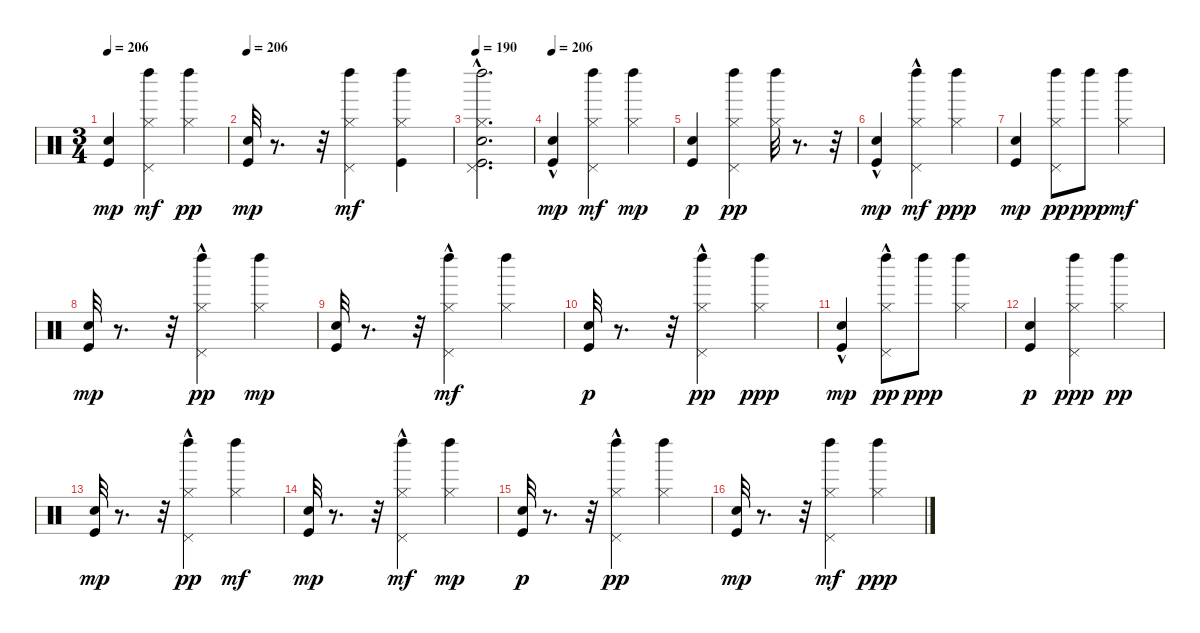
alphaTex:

\track "" {instrument percussion}
\staff {score}
\articulation defaults
\ts (3 4)
\tempo 206
\clef neutral
\ks c
("Kick (hit)" "Snare (hit)").4{dy mp} ("Pedal Hi-Hat (hit)" "Left Maraca (hit)" "Hi-Hat (closed)").4{dy mf} ("Hi-Hat (closed)" "Left Maraca (hit)").4{dy pp} |
\tempo 206
("Kick (hit)" "Snare (hit)").32{dy mp} r.8{d} r.32 ("Pedal Hi-Hat (hit)" "Left Maraca (hit)" "Hi-Hat (closed)").4{dy mf} ("Kick (hit)" "Left Maraca (hit)" "Hi-Hat (closed)").4 |
\tempo 190
("Snare (hit)" "Kick (hit)" "Left Maraca (hit)" "Pedal Hi-Hat (hit)"{hac} "Hi-Hat (closed)").2{d} |
\tempo 206
("Kick (hit)"{hac} "Snare (hit)"{hac}).4{dy mp} ("Pedal Hi-Hat (hit)" "Left Maraca (hit)" "Hi-Hat (closed)").4{dy mf} ("Left Maraca (hit)" "Hi-Hat (closed)").4{dy mp} |
("Snare (hit)" "Kick (hit)").4{dy p} ("Hi-Hat (closed)" "Left Maraca (hit)" "Pedal Hi-Hat (hit)").4{dy pp} ("Hi-Hat (closed)" "Left Maraca (hit)").32 r.8{d} r.32 |
("Kick (hit)" "Snare (hit)"{hac}).4{dy mp} ("Pedal Hi-Hat (hit)"{hac} "Left Maraca (hit)" "Hi-Hat (closed)").4{dy mf} ("Hi-Hat (closed)" "Left Maraca (hit)").4{dy ppp} |
("Kick (hit)" "Snare (hit)").4{dy mp} ("Pedal Hi-Hat (hit)" "Hi-Hat (closed)" "Left Maraca (hit)").8{dy pp} "Left Maraca (hit)".8{dy ppp} ("Left Maraca (hit)" "Hi-Hat (closed)").4{dy mf} |
("Kick (hit)" "Snare (hit)").32{dy mp} r.8{d} r.32 ("Left Maraca (hit)" "Hi-Hat (closed)" "Pedal Hi-Hat (hit)"{hac}).4{dy pp} ("Left Maraca (hit)" "Hi-Hat (closed)").4{dy mp} |
("Kick (hit)" "Snare (hit)").32 r.8{d} r.32 ("Pedal Hi-Hat (hit)"{hac} "Left Maraca (hit)" "Hi-Hat (closed)").4{dy mf} ("Left Maraca (hit)" "Hi-Hat (closed)").4 |
("Snare (hit)" "Kick (hit)").32{dy p} r.8{d} r.32 ("Hi-Hat (closed)" "Left Maraca (hit)" "Pedal Hi-Hat (hit)"{hac}).4{dy pp} ("Hi-Hat (closed)" "Left Maraca (hit)").4{dy ppp} |
("Kick (hit)"{hac} "Snare (hit)"{hac}).4{dy mp} ("Pedal Hi-Hat (hit)"{hac} "Hi-Hat (closed)" "Left Maraca (hit)").8{dy pp} "Left Maraca (hit)".8{dy ppp} ("Hi-Hat (closed)" "Left Maraca (hit)").4 |
("Snare (hit)" "Kick (hit)").4{dy p} ("Pedal Hi-Hat (hit)" "Hi-Hat (closed)" "Left Maraca (hit)").4{dy ppp} ("Hi-Hat (closed)" "Left Maraca (hit)").4{dy pp} |
("Kick (hit)" "Snare (hit)").32{dy mp} r.8{d} r.32 ("Left Maraca (hit)" "Hi-Hat (closed)" "Pedal Hi-Hat (hit)"{hac}).4{dy pp} ("Left Maraca (hit)" "Hi-Hat (closed)").4{dy mf} |
("Kick (hit)" "Snare (hit)").32{dy mp} r.8{d} r.32 ("Pedal Hi-Hat (hit)"{hac} "Left Maraca (hit)" "Hi-Hat (closed)").4{dy mf} ("Left Maraca (hit)" "Hi-Hat (closed)").4{dy mp} |
("Snare (hit)" "Kick (hit)").32{dy p} r.8{d} r.32 ("Hi-Hat (closed)" "Left Maraca (hit)" "Pedal Hi-Hat (hit)"{hac}).4{dy pp} ("Hi-Hat (closed)" "Left Maraca (hit)").4 |
("Kick (hit)" "Snare (hit)").32{dy mp} r.8{d} r.32 ("Pedal Hi-Hat (hit)" "Left Maraca (hit)" "Hi-Hat (closed)").4{dy mf} ("Hi-Hat (closed)" "Left Maraca (hit)").4{dy ppp}
